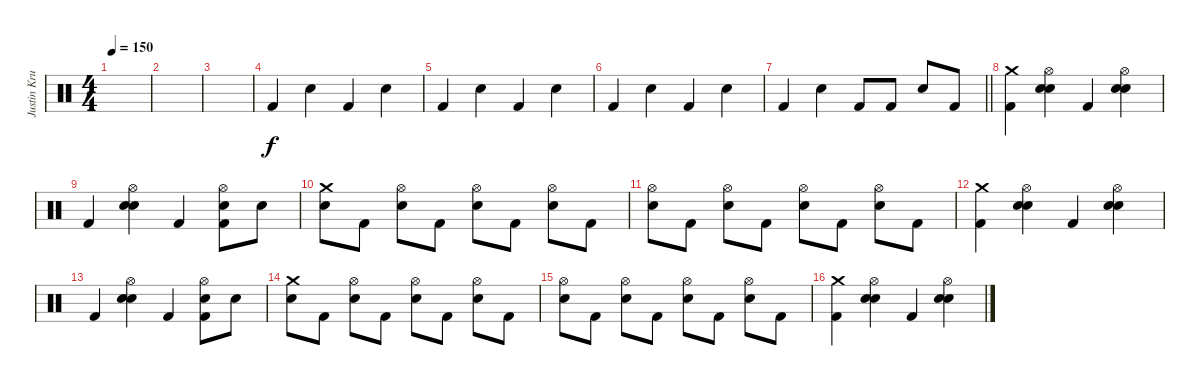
\track ("Justin Kruger" "Justin Kru") {instrument percussion}
\staff {score}
\articulation defaults
\ts (4 4)
\tempo 150
\clef neutral
\ks c
|
|
|
"Kick (hit) 2".4 "Snare (hit) 2".4 "Kick (hit) 2".4 "Snare (hit) 2".4 |
"Kick (hit) 2".4 "Snare (hit) 2".4 "Kick (hit) 2".4 "Snare (hit) 2".4 |
"Kick (hit) 2".4 "Snare (hit) 2".4 "Kick (hit) 2".4 "Snare (hit) 2".4 |
\barLineRight lightlight "Kick (hit) 2".4 "Snare (hit) 2".4 "Kick (hit) 2".8 "Kick (hit) 2".8 "Snare (hit) 2".8 "Kick (hit) 2".8
|
\section ("" "")
("Crash medium (hit)" "Kick (hit) 2").4 ("Hi-Hat (open)" "Snare (hit) 2" "Snare (hit) 2").4 "Kick (hit) 2".4 ("Hi-Hat (open)" "Snare (hit) 2" "Snare (hit) 2").4 |
"Kick (hit) 2".4 ("Hi-Hat (open)" "Snare (hit) 2" "Snare (hit) 2").4 "Kick (hit) 2".4 ("Hi-Hat (open)" "Snare (hit) 2" "Kick (hit) 2").8 "Snare (hit) 2".8 |
("Crash medium (hit)" "Snare (hit) 2").8 "Kick (hit) 2".8 ("Hi-Hat (open)" "Snare (hit) 2").8 "Kick (hit) 2".8 ("Hi-Hat (open)" "Snare (hit) 2").8 "Kick (hit) 2".8 ("Hi-Hat (open)" "Snare (hit) 2").8 "Kick (hit) 2".8 |
("Hi-Hat (open)" "Snare (hit) 2").8 "Kick (hit) 2".8 ("Hi-Hat (open)" "Snare (hit) 2").8 "Kick (hit) 2".8 ("Hi-Hat (open)" "Snare (hit) 2").8 "Kick (hit) 2".8 ("Hi-Hat (open)" "Snare (hit) 2").8 "Kick (hit) 2".8 |
("Crash medium (hit)" "Kick (hit) 2").4 ("Hi-Hat (open)" "Snare (hit) 2" "Snare (hit) 2").4 "Kick (hit) 2".4 ("Hi-Hat (open)" "Snare (hit) 2" "Snare (hit) 2").4 |
"Kick (hit) 2".4 ("Hi-Hat (open)" "Snare (hit) 2" "Snare (hit) 2").4 "Kick (hit) 2".4 ("Hi-Hat (open)" "Snare (hit) 2" "Kick (hit) 2").8 "Snare (hit) 2".8 |
("Crash medium (hit)" "Snare (hit) 2").8 "Kick (hit) 2".8 ("Hi-Hat (open)" "Snare (hit) 2").8 "Kick (hit) 2".8 ("Hi-Hat (open)" "Snare (hit) 2").8 "Kick (hit) 2".8 ("Hi-Hat (open)" "Snare (hit) 2").8 "Kick (hit) 2".8 |
("Hi-Hat (open)" "Snare (hit) 2").8 "Kick (hit) 2".8 ("Hi-Hat (open)" "Snare (hit) 2").8 "Kick (hit) 2".8 ("Hi-Hat (open)" "Snare (hit) 2").8 "Kick (hit) 2".8 ("Hi-Hat (open)" "Snare (hit) 2").8 "Kick (hit) 2".8 |
("Crash medium (hit)" "Kick (hit) 2").4 ("Hi-Hat (open)" "Snare (hit) 2" "Snare (hit) 2").4 "Kick (hit) 2".4 ("Hi-Hat (open)" "Snare (hit) 2" "Snare (hit) 2").4
